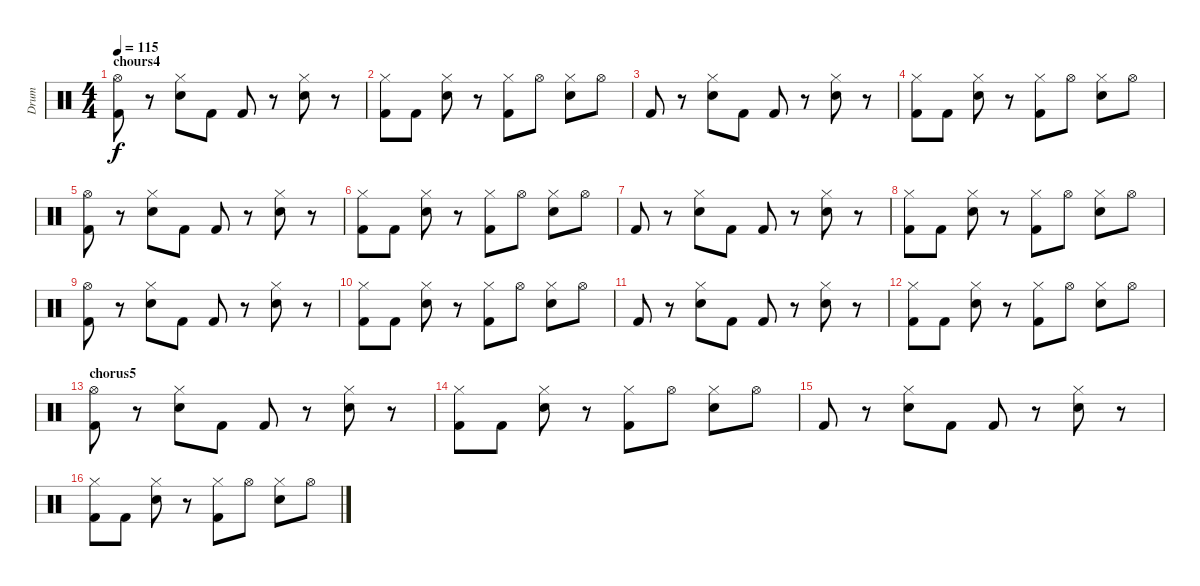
\track ("Drum" "Drum") {instrument percussion}
\staff {score}
\articulation defaults
\ts (4 4)
\section ("" "chours4")
\tempo 115
\clef neutral
\ks c
("Hi-Hat (open)" "Kick (hit) 2").8{dy f} r.8 ("Hi-Hat (closed)" "Electric Snare (hit)").8 "Kick (hit) 2".8 "Kick (hit) 2".8 r.8 ("Hi-Hat (closed)" "Electric Snare (hit)").8 r.8 |
("Hi-Hat (closed)" "Kick (hit) 2").8 "Kick (hit) 2".8 ("Hi-Hat (closed)" "Electric Snare (hit)").8 r.8 ("Hi-Hat (closed)" "Kick (hit) 2").8 "Hi-Hat (open)".8 ("Hi-Hat (closed)" "Electric Snare (hit)").8 "Hi-Hat (open)".8 |
"Kick (hit) 2".8 r.8 ("Hi-Hat (closed)" "Electric Snare (hit)").8 "Kick (hit) 2".8 "Kick (hit) 2".8 r.8 ("Hi-Hat (closed)" "Electric Snare (hit)").8 r.8 |
("Hi-Hat (closed)" "Kick (hit) 2").8 "Kick (hit) 2".8 ("Hi-Hat (closed)" "Electric Snare (hit)").8 r.8 ("Hi-Hat (closed)" "Kick (hit) 2").8 "Hi-Hat (open)".8 ("Hi-Hat (closed)" "Electric Snare (hit)").8 "Hi-Hat (open)".8 |
("Hi-Hat (open)" "Kick (hit) 2").8 r.8 ("Hi-Hat (closed)" "Electric Snare (hit)").8 "Kick (hit) 2".8 "Kick (hit) 2".8 r.8 ("Hi-Hat (closed)" "Electric Snare (hit)").8 r.8 |
("Hi-Hat (closed)" "Kick (hit) 2").8 "Kick (hit) 2".8 ("Hi-Hat (closed)" "Electric Snare (hit)").8 r.8 ("Hi-Hat (closed)" "Kick (hit) 2").8 "Hi-Hat (open)".8 ("Hi-Hat (closed)" "Electric Snare (hit)").8 "Hi-Hat (open)".8 |
"Kick (hit) 2".8 r.8 ("Hi-Hat (closed)" "Electric Snare (hit)").8 "Kick (hit) 2".8 "Kick (hit) 2".8 r.8 ("Hi-Hat (closed)" "Electric Snare (hit)").8 r.8 |
("Hi-Hat (closed)" "Kick (hit) 2").8 "Kick (hit) 2".8 ("Hi-Hat (closed)" "Electric Snare (hit)").8 r.8 ("Hi-Hat (closed)" "Kick (hit) 2").8 "Hi-Hat (open)".8 ("Hi-Hat (closed)" "Electric Snare (hit)").8 "Hi-Hat (open)".8 |
("Hi-Hat (open)" "Kick (hit) 2").8 r.8 ("Hi-Hat (closed)" "Electric Snare (hit)").8 "Kick (hit) 2".8 "Kick (hit) 2".8 r.8 ("Hi-Hat (closed)" "Electric Snare (hit)").8 r.8 |
("Hi-Hat (closed)" "Kick (hit) 2").8 "Kick (hit) 2".8 ("Hi-Hat (closed)" "Electric Snare (hit)").8 r.8 ("Hi-Hat (closed)" "Kick (hit) 2").8 "Hi-Hat (open)".8 ("Hi-Hat (closed)" "Electric Snare (hit)").8 "Hi-Hat (open)".8 |
"Kick (hit) 2".8 r.8 ("Hi-Hat (closed)" "Electric Snare (hit)").8 "Kick (hit) 2".8 "Kick (hit) 2".8 r.8 ("Hi-Hat (closed)" "Electric Snare (hit)").8 r.8 |
("Hi-Hat (closed)" "Kick (hit) 2").8 "Kick (hit) 2".8 ("Hi-Hat (closed)" "Electric Snare (hit)").8 r.8 ("Hi-Hat (closed)" "Kick (hit) 2").8 "Hi-Hat (open)".8 ("Hi-Hat (closed)" "Electric Snare (hit)").8 "Hi-Hat (open)".8 |
\section ("" "chorus5")
("Hi-Hat (open)" "Kick (hit) 2").8 r.8 ("Hi-Hat (closed)" "Electric Snare (hit)").8 "Kick (hit) 2".8 "Kick (hit) 2".8 r.8 ("Hi-Hat (closed)" "Electric Snare (hit)").8 r.8 |
("Hi-Hat (closed)" "Kick (hit) 2").8 "Kick (hit) 2".8 ("Hi-Hat (closed)" "Electric Snare (hit)").8 r.8 ("Hi-Hat (closed)" "Kick (hit) 2").8 "Hi-Hat (open)".8 ("Hi-Hat (closed)" "Electric Snare (hit)").8 "Hi-Hat (open)".8 |
"Kick (hit) 2".8 r.8 ("Hi-Hat (closed)" "Electric Snare (hit)").8 "Kick (hit) 2".8 "Kick (hit) 2".8 r.8 ("Hi-Hat (closed)" "Electric Snare (hit)").8 r.8 |
("Hi-Hat (closed)" "Kick (hit) 2").8 "Kick (hit) 2".8 ("Hi-Hat (closed)" "Electric Snare (hit)").8 r.8 ("Hi-Hat (closed)" "Kick (hit) 2").8 "Hi-Hat (open)".8 ("Hi-Hat (closed)" "Electric Snare (hit)").8 "Hi-Hat (open)".8
